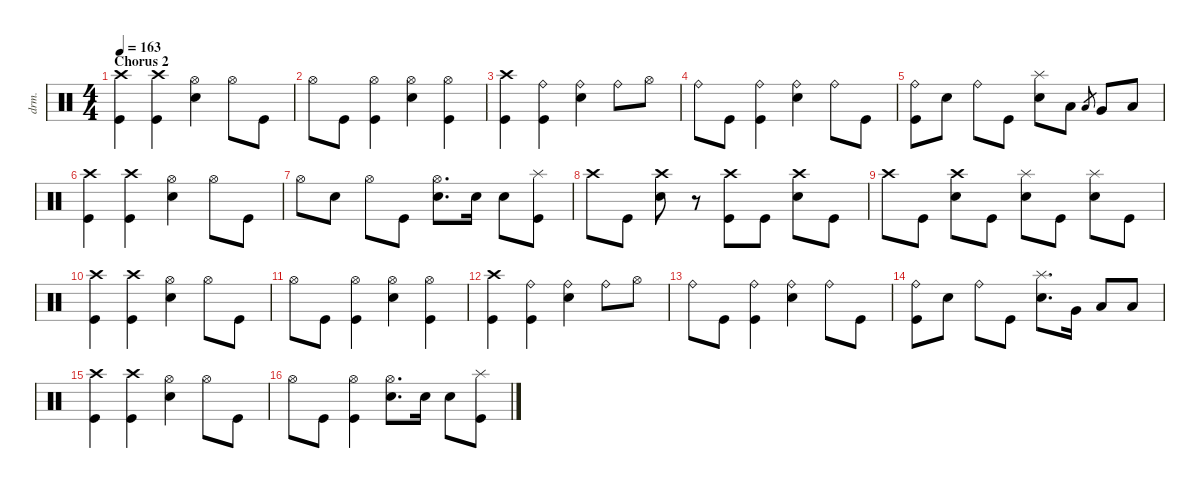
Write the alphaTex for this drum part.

\defaultSystemsLayout 4
\hideDynamics
\bracketExtendMode nobrackets
\otherSystemsTrackNameOrientation horizontal
\track ("Drums" "drm.") {instrument percussion}
\staff {score}
\articulation defaults
\ts (4 4)
\beaming (8 2 2 2 2)
\section ("" "Chorus 2")
\tempo 163
\clef neutral
\ks c
("Crash high (hit)" "Kick (hit)").4{dy f} ("Crash high (hit)" "Kick (hit)").4 ("Hi-Hat (open)" "Snare (hit) 2").4 "Hi-Hat (open)".8 "Kick (hit)".8 |
"Hi-Hat (open)".8 "Kick (hit)".8 ("Hi-Hat (open)" "Kick (hit)").4 ("Hi-Hat (open)" "Snare (hit) 2").4 ("Hi-Hat (open)" "Kick (hit)").4 |
("Crash high (hit)" "Kick (hit)").4 ("Ride (bell)" "Kick (hit)").4 ("Ride (bell)" "Snare (hit) 2").4 "Ride (bell)".8 "Hi-Hat (open)".8 |
"Ride (bell)".8 "Kick (hit)".8 ("Ride (bell)" "Kick (hit)").4 ("Ride (bell)" "Snare (hit) 2").4 "Ride (bell)".8 "Kick (hit)".8 |
("Ride (bell)" "Kick (hit)").8 "Snare (hit) 2".8 "Ride (bell)".8 "Kick (hit)".8 ("Splash (hit)" "Snare (hit) 2").8 "Low Floor Tom (hit)".8 "Low Floor Tom (hit)".8{gr dy mf} "Very Low Tom (hit)".8{dy f} "Low Floor Tom (hit)".8 |
("Crash high (hit)" "Kick (hit)").4 ("Crash high (hit)" "Kick (hit)").4 ("Hi-Hat (open)" "Snare (hit) 2").4 "Hi-Hat (open)".8 "Kick (hit)".8 |
"Hi-Hat (open)".8 "Snare (hit) 2".8 "Hi-Hat (open)".8 "Kick (hit)".8 ("Hi-Hat (open)" "Snare (hit) 2").8{d} "Snare (hit) 2".16 "Snare (hit) 2".8 ("Splash (hit)" "Kick (hit)").8 |
"Crash high (hit)".8 "Kick (hit)".8 ("Crash high (hit)" "Snare (hit) 2").8 r.8 ("Crash high (hit)" "Kick (hit)").8 "Kick (hit)".8 ("Crash high (hit)" "Snare (hit) 2").8 "Kick (hit)".8 |
"Crash high (hit)".8 "Kick (hit)".8 ("Crash high (hit)" "Snare (hit) 2").8 "Kick (hit)".8 ("Splash (hit)" "Snare (hit) 2").8 "Kick (hit)".8 ("Splash (hit)" "Snare (hit) 2").8 "Kick (hit)".8 |
\section ("" "")
("Crash high (hit)" "Kick (hit)").4 ("Crash high (hit)" "Kick (hit)").4 ("Hi-Hat (open)" "Snare (hit) 2").4 "Hi-Hat (open)".8 "Kick (hit)".8 |
"Hi-Hat (open)".8 "Kick (hit)".8 ("Hi-Hat (open)" "Kick (hit)").4 ("Hi-Hat (open)" "Snare (hit) 2").4 ("Hi-Hat (open)" "Kick (hit)").4 |
("Crash high (hit)" "Kick (hit)").4 ("Ride (bell)" "Kick (hit)").4 ("Ride (bell)" "Snare (hit) 2").4 "Ride (bell)".8 "Hi-Hat (open)".8 |
"Ride (bell)".8 "Kick (hit)".8 ("Ride (bell)" "Kick (hit)").4 ("Ride (bell)" "Snare (hit) 2").4 "Ride (bell)".8 "Kick (hit)".8 |
("Ride (bell)" "Kick (hit)").8 "Snare (hit) 2".8 "Ride (bell)".8 "Kick (hit)".8 ("Splash (hit)" "Snare (hit) 2").8{d} "Very Low Tom (hit)".16 "Low Floor Tom (hit)".8 "Low Floor Tom (hit)".8 |
("Crash high (hit)" "Kick (hit)").4 ("Crash high (hit)" "Kick (hit)").4 ("Hi-Hat (open)" "Snare (hit) 2").4 "Hi-Hat (open)".8 "Kick (hit)".8 |
"Hi-Hat (open)".8 "Kick (hit)".8 ("Hi-Hat (open)" "Kick (hit)").4 ("Hi-Hat (open)" "Snare (hit) 2").8{d} "Snare (hit) 2".16 "Snare (hit) 2".8 ("Splash (hit)" "Kick (hit)").8
